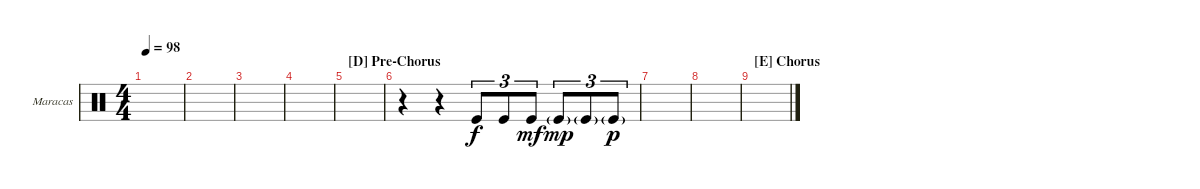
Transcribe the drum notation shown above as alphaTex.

\defaultSystemsLayout 4
\bracketExtendMode groupsimilarinstruments
\firstSystemTrackNameOrientation horizontal
\otherSystemsTrackNameOrientation horizontal
\track ("Maracas" "Maracas") {instrument percussion}
\staff {score}
\articulation defaults
\ts (4 4)
\tempo 98
\clef neutral
\ks c
|
|
|
|
\section ("D" "Pre-Chorus")
|
r.4 r.4 "Kick (hit)".8{tu (3 2) dy f} "Kick (hit)".8{tu (3 2)} "Kick (hit)".8{tu (3 2) dy mf} "Kick (hit)"{g}.8{tu (3 2) dy mp} "Kick (hit)"{g}.8{tu (3 2)} "Kick (hit)"{g}.8{tu (3 2) dy p} |
|
|
\section ("E" "Chorus")
